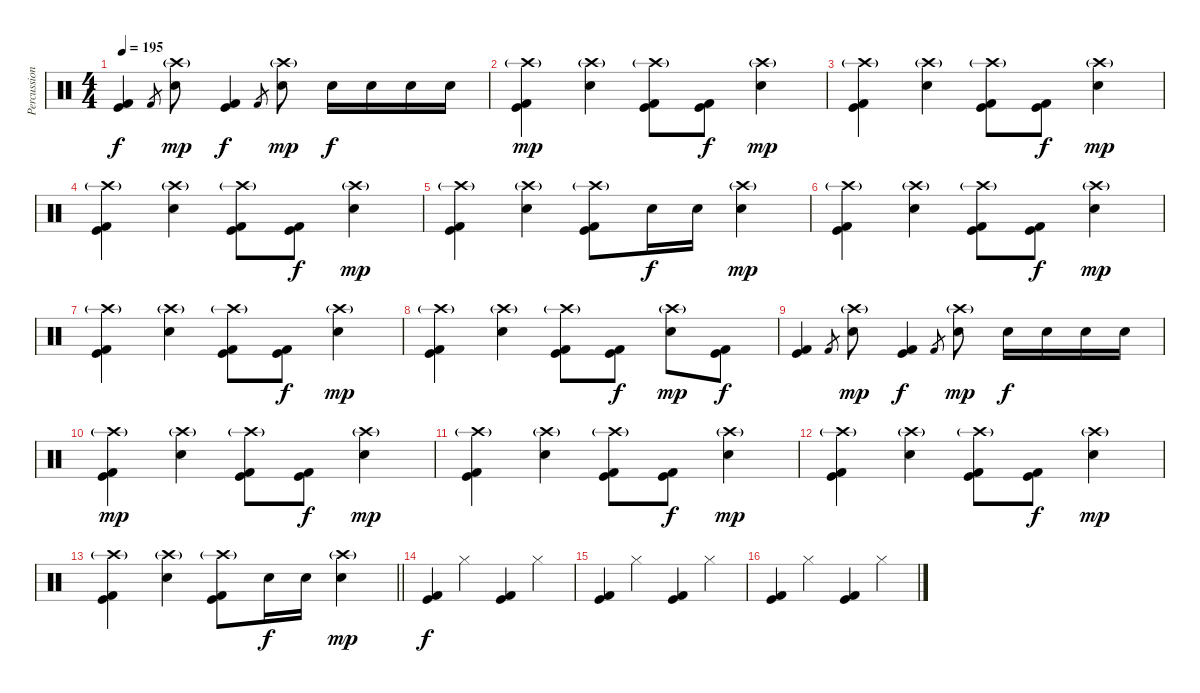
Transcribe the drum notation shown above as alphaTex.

\track ("Percussion" "Percussion") {instrument percussion}
\staff {score}
\articulation defaults
\ts (4 4)
\tempo 195
\clef neutral
\ks c
("Kick (hit)" "Kick (hit) 2").4{dy f} "Kick (hit) 2".8{gr} ("Crash high (hit)"{g} "Snare (hit) 2").8{dy mp} ("Kick (hit)" "Kick (hit) 2").4{dy f} "Kick (hit) 2".8{gr} ("Crash high (hit)"{g} "Snare (hit) 2").8{dy mp} "Snare (hit) 2".16{dy f} "Snare (hit) 2".16 "Snare (hit) 2".16 "Snare (hit) 2".16 |
("Crash high (hit)"{g} "Kick (hit) 2" "Kick (hit)").4{dy mp} ("Crash high (hit)"{g} "Electric Snare (hit)").4 ("Crash high (hit)"{g} "Kick (hit) 2" "Kick (hit)").8 ("Kick (hit) 2" "Kick (hit)").8{dy f} ("Crash high (hit)"{g} "Electric Snare (hit)").4{dy mp} |
("Crash high (hit)"{g} "Kick (hit) 2" "Kick (hit)").4 ("Crash high (hit)"{g} "Electric Snare (hit)").4 ("Crash high (hit)"{g} "Kick (hit) 2" "Kick (hit)").8 ("Kick (hit) 2" "Kick (hit)").8{dy f} ("Crash high (hit)"{g} "Electric Snare (hit)").4{dy mp} |
("Crash high (hit)"{g} "Kick (hit) 2" "Kick (hit)").4 ("Crash high (hit)"{g} "Electric Snare (hit)").4 ("Crash high (hit)"{g} "Kick (hit) 2" "Kick (hit)").8 ("Kick (hit) 2" "Kick (hit)").8{dy f} ("Crash high (hit)"{g} "Electric Snare (hit)").4{dy mp} |
("Crash high (hit)"{g} "Kick (hit) 2" "Kick (hit)").4 ("Crash high (hit)"{g} "Electric Snare (hit)").4 ("Crash high (hit)"{g} "Kick (hit) 2" "Kick (hit)").8 "Electric Snare (hit)".16{dy f} "Electric Snare (hit)".16 ("Crash high (hit)"{g} "Electric Snare (hit)").4{dy mp} |
("Crash high (hit)"{g} "Kick (hit) 2" "Kick (hit)").4 ("Crash high (hit)"{g} "Electric Snare (hit)").4 ("Crash high (hit)"{g} "Kick (hit) 2" "Kick (hit)").8 ("Kick (hit) 2" "Kick (hit)").8{dy f} ("Crash high (hit)"{g} "Electric Snare (hit)").4{dy mp} |
("Crash high (hit)"{g} "Kick (hit) 2" "Kick (hit)").4 ("Crash high (hit)"{g} "Electric Snare (hit)").4 ("Crash high (hit)"{g} "Kick (hit) 2" "Kick (hit)").8 ("Kick (hit) 2" "Kick (hit)").8{dy f} ("Crash high (hit)"{g} "Electric Snare (hit)").4{dy mp} |
("Crash high (hit)"{g} "Kick (hit) 2" "Kick (hit)").4 ("Crash high (hit)"{g} "Electric Snare (hit)").4 ("Crash high (hit)"{g} "Kick (hit) 2" "Kick (hit)").8 ("Kick (hit) 2" "Kick (hit)").8{dy f} ("Crash high (hit)"{g} "Electric Snare (hit)").8{dy mp} ("Kick (hit)" "Kick (hit) 2").8{dy f} |
("Kick (hit)" "Kick (hit) 2").4 "Kick (hit) 2".8{gr} ("Crash high (hit)"{g} "Snare (hit) 2").8{dy mp} ("Kick (hit)" "Kick (hit) 2").4{dy f} "Kick (hit) 2".8{gr} ("Crash high (hit)"{g} "Snare (hit) 2").8{dy mp} "Snare (hit) 2".16{dy f} "Snare (hit) 2".16 "Snare (hit) 2".16 "Snare (hit) 2".16 |
("Crash high (hit)"{g} "Kick (hit) 2" "Kick (hit)").4{dy mp} ("Crash high (hit)"{g} "Electric Snare (hit)").4 ("Crash high (hit)"{g} "Kick (hit) 2" "Kick (hit)").8 ("Kick (hit) 2" "Kick (hit)").8{dy f} ("Crash high (hit)"{g} "Electric Snare (hit)").4{dy mp} |
("Crash high (hit)"{g} "Kick (hit) 2" "Kick (hit)").4 ("Crash high (hit)"{g} "Electric Snare (hit)").4 ("Crash high (hit)"{g} "Kick (hit) 2" "Kick (hit)").8 ("Kick (hit) 2" "Kick (hit)").8{dy f} ("Crash high (hit)"{g} "Electric Snare (hit)").4{dy mp} |
("Crash high (hit)"{g} "Kick (hit) 2" "Kick (hit)").4 ("Crash high (hit)"{g} "Electric Snare (hit)").4 ("Crash high (hit)"{g} "Kick (hit) 2" "Kick (hit)").8 ("Kick (hit) 2" "Kick (hit)").8{dy f} ("Crash high (hit)"{g} "Electric Snare (hit)").4{dy mp} |
\barLineRight lightlight
("Crash high (hit)"{g} "Kick (hit) 2" "Kick (hit)").4 ("Crash high (hit)"{g} "Electric Snare (hit)").4 ("Crash high (hit)"{g} "Kick (hit) 2" "Kick (hit)").8 "Electric Snare (hit)".16{dy f} "Electric Snare (hit)".16 ("Crash high (hit)"{g} "Electric Snare (hit)").4{dy mp} |
("Kick (hit)" "Kick (hit) 2").4{dy f} "Hi-Hat (closed)".4 ("Kick (hit)" "Kick (hit) 2").4 "Hi-Hat (closed)".4 |
("Kick (hit)" "Kick (hit) 2").4 "Hi-Hat (closed)".4 ("Kick (hit)" "Kick (hit) 2").4 "Hi-Hat (closed)".4 |
("Kick (hit)" "Kick (hit) 2").4 "Hi-Hat (closed)".4 ("Kick (hit)" "Kick (hit) 2").4 "Hi-Hat (closed)".4
